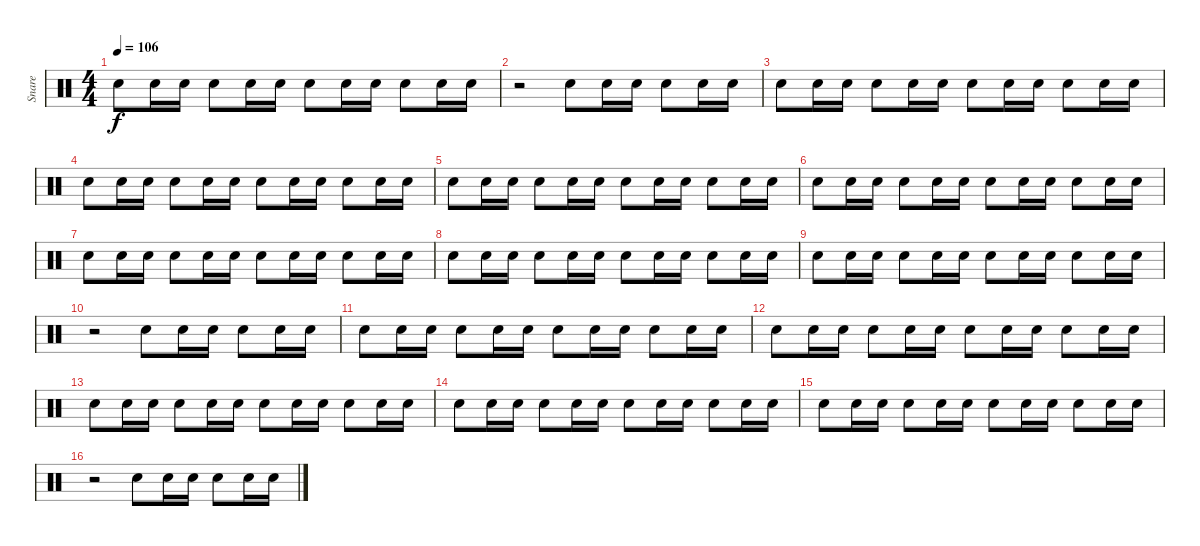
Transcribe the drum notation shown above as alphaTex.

\track ("Snare" "Snare") {instrument percussion}
\staff {score}
\articulation defaults
\ts (4 4)
\tempo 106
\clef neutral
\ks c "Electric Snare (hit)".8{dy f} "Electric Snare (hit)".16 "Electric Snare (hit)".16 "Electric Snare (hit)".8 "Electric Snare (hit)".16 "Electric Snare (hit)".16 "Electric Snare (hit)".8 "Electric Snare (hit)".16 "Electric Snare (hit)".16 "Electric Snare (hit)".8 "Electric Snare (hit)".16 "Electric Snare (hit)".16
|
r.2 "Electric Snare (hit)".8 "Electric Snare (hit)".16 "Electric Snare (hit)".16 "Electric Snare (hit)".8 "Electric Snare (hit)".16 "Electric Snare (hit)".16 |
"Electric Snare (hit)".8 "Electric Snare (hit)".16 "Electric Snare (hit)".16 "Electric Snare (hit)".8 "Electric Snare (hit)".16 "Electric Snare (hit)".16 "Electric Snare (hit)".8 "Electric Snare (hit)".16 "Electric Snare (hit)".16 "Electric Snare (hit)".8 "Electric Snare (hit)".16 "Electric Snare (hit)".16 |
"Electric Snare (hit)".8 "Electric Snare (hit)".16 "Electric Snare (hit)".16 "Electric Snare (hit)".8 "Electric Snare (hit)".16 "Electric Snare (hit)".16 "Electric Snare (hit)".8 "Electric Snare (hit)".16 "Electric Snare (hit)".16 "Electric Snare (hit)".8 "Electric Snare (hit)".16 "Electric Snare (hit)".16 |
"Electric Snare (hit)".8 "Electric Snare (hit)".16 "Electric Snare (hit)".16 "Electric Snare (hit)".8 "Electric Snare (hit)".16 "Electric Snare (hit)".16 "Electric Snare (hit)".8 "Electric Snare (hit)".16 "Electric Snare (hit)".16 "Electric Snare (hit)".8 "Electric Snare (hit)".16 "Electric Snare (hit)".16 |
"Electric Snare (hit)".8 "Electric Snare (hit)".16 "Electric Snare (hit)".16 "Electric Snare (hit)".8 "Electric Snare (hit)".16 "Electric Snare (hit)".16 "Electric Snare (hit)".8 "Electric Snare (hit)".16 "Electric Snare (hit)".16 "Electric Snare (hit)".8 "Electric Snare (hit)".16 "Electric Snare (hit)".16 |
"Electric Snare (hit)".8 "Electric Snare (hit)".16 "Electric Snare (hit)".16 "Electric Snare (hit)".8 "Electric Snare (hit)".16 "Electric Snare (hit)".16 "Electric Snare (hit)".8 "Electric Snare (hit)".16 "Electric Snare (hit)".16 "Electric Snare (hit)".8 "Electric Snare (hit)".16 "Electric Snare (hit)".16 |
"Electric Snare (hit)".8 "Electric Snare (hit)".16 "Electric Snare (hit)".16 "Electric Snare (hit)".8 "Electric Snare (hit)".16 "Electric Snare (hit)".16 "Electric Snare (hit)".8 "Electric Snare (hit)".16 "Electric Snare (hit)".16 "Electric Snare (hit)".8 "Electric Snare (hit)".16 "Electric Snare (hit)".16 |
"Electric Snare (hit)".8 "Electric Snare (hit)".16 "Electric Snare (hit)".16 "Electric Snare (hit)".8 "Electric Snare (hit)".16 "Electric Snare (hit)".16 "Electric Snare (hit)".8 "Electric Snare (hit)".16 "Electric Snare (hit)".16 "Electric Snare (hit)".8 "Electric Snare (hit)".16 "Electric Snare (hit)".16 |
r.2 "Electric Snare (hit)".8 "Electric Snare (hit)".16 "Electric Snare (hit)".16 "Electric Snare (hit)".8 "Electric Snare (hit)".16 "Electric Snare (hit)".16 |
"Electric Snare (hit)".8 "Electric Snare (hit)".16 "Electric Snare (hit)".16 "Electric Snare (hit)".8 "Electric Snare (hit)".16 "Electric Snare (hit)".16 "Electric Snare (hit)".8 "Electric Snare (hit)".16 "Electric Snare (hit)".16 "Electric Snare (hit)".8 "Electric Snare (hit)".16 "Electric Snare (hit)".16 |
"Electric Snare (hit)".8 "Electric Snare (hit)".16 "Electric Snare (hit)".16 "Electric Snare (hit)".8 "Electric Snare (hit)".16 "Electric Snare (hit)".16 "Electric Snare (hit)".8 "Electric Snare (hit)".16 "Electric Snare (hit)".16 "Electric Snare (hit)".8 "Electric Snare (hit)".16 "Electric Snare (hit)".16 |
"Electric Snare (hit)".8 "Electric Snare (hit)".16 "Electric Snare (hit)".16 "Electric Snare (hit)".8 "Electric Snare (hit)".16 "Electric Snare (hit)".16 "Electric Snare (hit)".8 "Electric Snare (hit)".16 "Electric Snare (hit)".16 "Electric Snare (hit)".8 "Electric Snare (hit)".16 "Electric Snare (hit)".16 |
"Electric Snare (hit)".8 "Electric Snare (hit)".16 "Electric Snare (hit)".16 "Electric Snare (hit)".8 "Electric Snare (hit)".16 "Electric Snare (hit)".16 "Electric Snare (hit)".8 "Electric Snare (hit)".16 "Electric Snare (hit)".16 "Electric Snare (hit)".8 "Electric Snare (hit)".16 "Electric Snare (hit)".16 |
"Electric Snare (hit)".8 "Electric Snare (hit)".16 "Electric Snare (hit)".16 "Electric Snare (hit)".8 "Electric Snare (hit)".16 "Electric Snare (hit)".16 "Electric Snare (hit)".8 "Electric Snare (hit)".16 "Electric Snare (hit)".16 "Electric Snare (hit)".8 "Electric Snare (hit)".16 "Electric Snare (hit)".16 |
r.2 "Electric Snare (hit)".8 "Electric Snare (hit)".16 "Electric Snare (hit)".16 "Electric Snare (hit)".8 "Electric Snare (hit)".16 "Electric Snare (hit)".16
